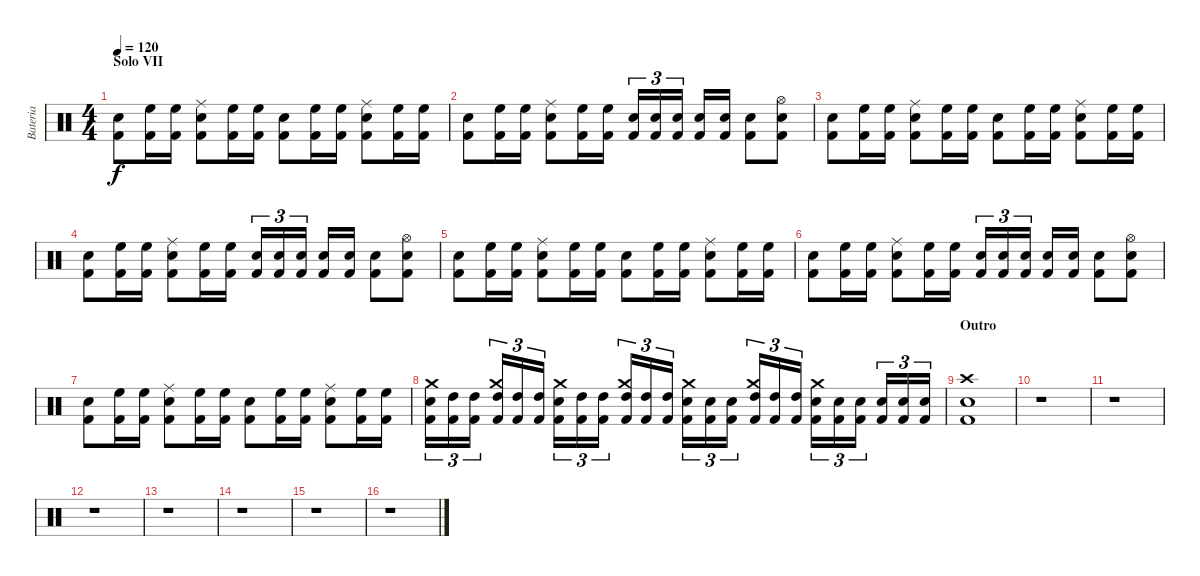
\track ("Bateria" "Bateria") {instrument percussion}
\staff {score}
\articulation defaults
\ts (4 4)
\section ("" "Solo VII")
\tempo 120
\clef neutral
\ks c
("Snare (hit) 2" "Kick (hit) 2").8{dy f} ("High Floor Tom (hit)" "Kick (hit) 2").16 ("High Floor Tom (hit)" "Kick (hit) 2").16 ("Ride (middle)" "Snare (hit) 2" "Kick (hit) 2").8 ("High Floor Tom (hit)" "Kick (hit) 2").16 ("High Floor Tom (hit)" "Kick (hit) 2").16 ("Snare (hit) 2" "Kick (hit) 2").8 ("High Floor Tom (hit)" "Kick (hit) 2").16 ("High Floor Tom (hit)" "Kick (hit) 2").16 ("Ride (middle)" "Snare (hit) 2" "Kick (hit) 2").8 ("High Floor Tom (hit)" "Kick (hit) 2").16 ("High Floor Tom (hit)" "Kick (hit) 2").16 |
("Snare (hit) 2" "Kick (hit) 2").8 ("High Floor Tom (hit)" "Kick (hit) 2").16 ("High Floor Tom (hit)" "Kick (hit) 2").16 ("Ride (middle)" "Snare (hit) 2" "Kick (hit) 2").8 ("High Floor Tom (hit)" "Kick (hit) 2").16 ("High Floor Tom (hit)" "Kick (hit) 2").16 ("Snare (hit) 2" "Kick (hit) 2").16{tu (3 2)} ("Snare (hit) 2" "Kick (hit) 2").16{tu (3 2)} ("Snare (hit) 2" "Kick (hit) 2").16{tu (3 2)} ("Snare (hit) 2" "Kick (hit) 2").16 ("Snare (hit) 2" "Kick (hit) 2").16 ("Snare (hit) 2" "Kick (hit) 2").8 ("Hi-Hat (open)" "Snare (hit) 2" "Kick (hit) 2").8 |
("Snare (hit) 2" "Kick (hit) 2").8 ("High Floor Tom (hit)" "Kick (hit) 2").16 ("High Floor Tom (hit)" "Kick (hit) 2").16 ("Ride (middle)" "Snare (hit) 2" "Kick (hit) 2").8 ("High Floor Tom (hit)" "Kick (hit) 2").16 ("High Floor Tom (hit)" "Kick (hit) 2").16 ("Snare (hit) 2" "Kick (hit) 2").8 ("High Floor Tom (hit)" "Kick (hit) 2").16 ("High Floor Tom (hit)" "Kick (hit) 2").16 ("Ride (middle)" "Snare (hit) 2" "Kick (hit) 2").8 ("High Floor Tom (hit)" "Kick (hit) 2").16 ("High Floor Tom (hit)" "Kick (hit) 2").16 |
("Snare (hit) 2" "Kick (hit) 2").8 ("High Floor Tom (hit)" "Kick (hit) 2").16 ("High Floor Tom (hit)" "Kick (hit) 2").16 ("Ride (middle)" "Snare (hit) 2" "Kick (hit) 2").8 ("High Floor Tom (hit)" "Kick (hit) 2").16 ("High Floor Tom (hit)" "Kick (hit) 2").16 ("Snare (hit) 2" "Kick (hit) 2").16{tu (3 2)} ("Snare (hit) 2" "Kick (hit) 2").16{tu (3 2)} ("Snare (hit) 2" "Kick (hit) 2").16{tu (3 2)} ("Snare (hit) 2" "Kick (hit) 2").16 ("Snare (hit) 2" "Kick (hit) 2").16 ("Snare (hit) 2" "Kick (hit) 2").8 ("Hi-Hat (open)" "Snare (hit) 2" "Kick (hit) 2").8 |
("Snare (hit) 2" "Kick (hit) 2").8 ("High Floor Tom (hit)" "Kick (hit) 2").16 ("High Floor Tom (hit)" "Kick (hit) 2").16 ("Ride (middle)" "Snare (hit) 2" "Kick (hit) 2").8 ("High Floor Tom (hit)" "Kick (hit) 2").16 ("High Floor Tom (hit)" "Kick (hit) 2").16 ("Snare (hit) 2" "Kick (hit) 2").8 ("High Floor Tom (hit)" "Kick (hit) 2").16 ("High Floor Tom (hit)" "Kick (hit) 2").16 ("Ride (middle)" "Snare (hit) 2" "Kick (hit) 2").8 ("High Floor Tom (hit)" "Kick (hit) 2").16 ("High Floor Tom (hit)" "Kick (hit) 2").16 |
("Snare (hit) 2" "Kick (hit) 2").8 ("High Floor Tom (hit)" "Kick (hit) 2").16 ("High Floor Tom (hit)" "Kick (hit) 2").16 ("Ride (middle)" "Snare (hit) 2" "Kick (hit) 2").8 ("High Floor Tom (hit)" "Kick (hit) 2").16 ("High Floor Tom (hit)" "Kick (hit) 2").16 ("Snare (hit) 2" "Kick (hit) 2").16{tu (3 2)} ("Snare (hit) 2" "Kick (hit) 2").16{tu (3 2)} ("Snare (hit) 2" "Kick (hit) 2").16{tu (3 2)} ("Snare (hit) 2" "Kick (hit) 2").16 ("Snare (hit) 2" "Kick (hit) 2").16 ("Snare (hit) 2" "Kick (hit) 2").8 ("Hi-Hat (open)" "Snare (hit) 2" "Kick (hit) 2").8 |
("Snare (hit) 2" "Kick (hit) 2").8 ("High Floor Tom (hit)" "Kick (hit) 2").16 ("High Floor Tom (hit)" "Kick (hit) 2").16 ("Ride (middle)" "Snare (hit) 2" "Kick (hit) 2").8 ("High Floor Tom (hit)" "Kick (hit) 2").16 ("High Floor Tom (hit)" "Kick (hit) 2").16 ("Snare (hit) 2" "Kick (hit) 2").8 ("High Floor Tom (hit)" "Kick (hit) 2").16 ("High Floor Tom (hit)" "Kick (hit) 2").16 ("Ride (middle)" "Snare (hit) 2" "Kick (hit) 2").8 ("High Floor Tom (hit)" "Kick (hit) 2").16 ("High Floor Tom (hit)" "Kick (hit) 2").16 |
("Crash medium (hit)" "Snare (hit) 2" "Kick (hit) 2").16{tu (3 2)} ("High Tom (hit)" "Kick (hit) 2").16{tu (3 2)} ("High Tom (hit)" "Kick (hit) 2").16{tu (3 2)} ("Crash medium (hit)" "High Tom (hit)" "Kick (hit) 2").16{tu (3 2)} ("High Tom (hit)" "Kick (hit) 2").16{tu (3 2)} ("High Tom (hit)" "Kick (hit) 2").16{tu (3 2)} ("Crash medium (hit)" "Snare (hit) 2" "Kick (hit) 2").16{tu (3 2)} ("High Tom (hit)" "Kick (hit) 2").16{tu (3 2)} ("High Tom (hit)" "Kick (hit) 2").16{tu (3 2)} ("Crash medium (hit)" "High Tom (hit)" "Kick (hit) 2").16{tu (3 2)} ("High Tom (hit)" "Kick (hit) 2").16{tu (3 2)} ("High Tom (hit)" "Kick (hit) 2").16{tu (3 2)} ("Crash medium (hit)" "Snare (hit) 2" "Kick (hit) 2").16{tu (3 2)} ("Snare (hit) 2" "Kick (hit) 2").16{tu (3 2)} ("Snare (hit) 2" "Kick (hit) 2").16{tu (3 2)} ("Crash medium (hit)" "High Tom (hit)" "Kick (hit) 2").16{tu (3 2)} ("High Tom (hit)" "Kick (hit) 2").16{tu (3 2)} ("High Tom (hit)" "Kick (hit) 2").16{tu (3 2)} ("Crash medium (hit)" "Snare (hit) 2" "Kick (hit) 2").16{tu (3 2)} ("Snare (hit) 2" "Kick (hit) 2").16{tu (3 2)} ("Snare (hit) 2" "Kick (hit) 2").16{tu (3 2)} ("Snare (hit) 2" "Kick (hit) 2").16{tu (3 2)} ("Snare (hit) 2" "Kick (hit) 2").16{tu (3 2)} ("Snare (hit) 2" "Kick (hit) 2").16{tu (3 2)} |
\section ("" "Outro")
("Crash high (hit)" "Snare (hit) 2" "Kick (hit) 2").1 |
r.1 |
r.1 |
r.1 |
r.1 |
r.1 |
r.1 |
r.1
